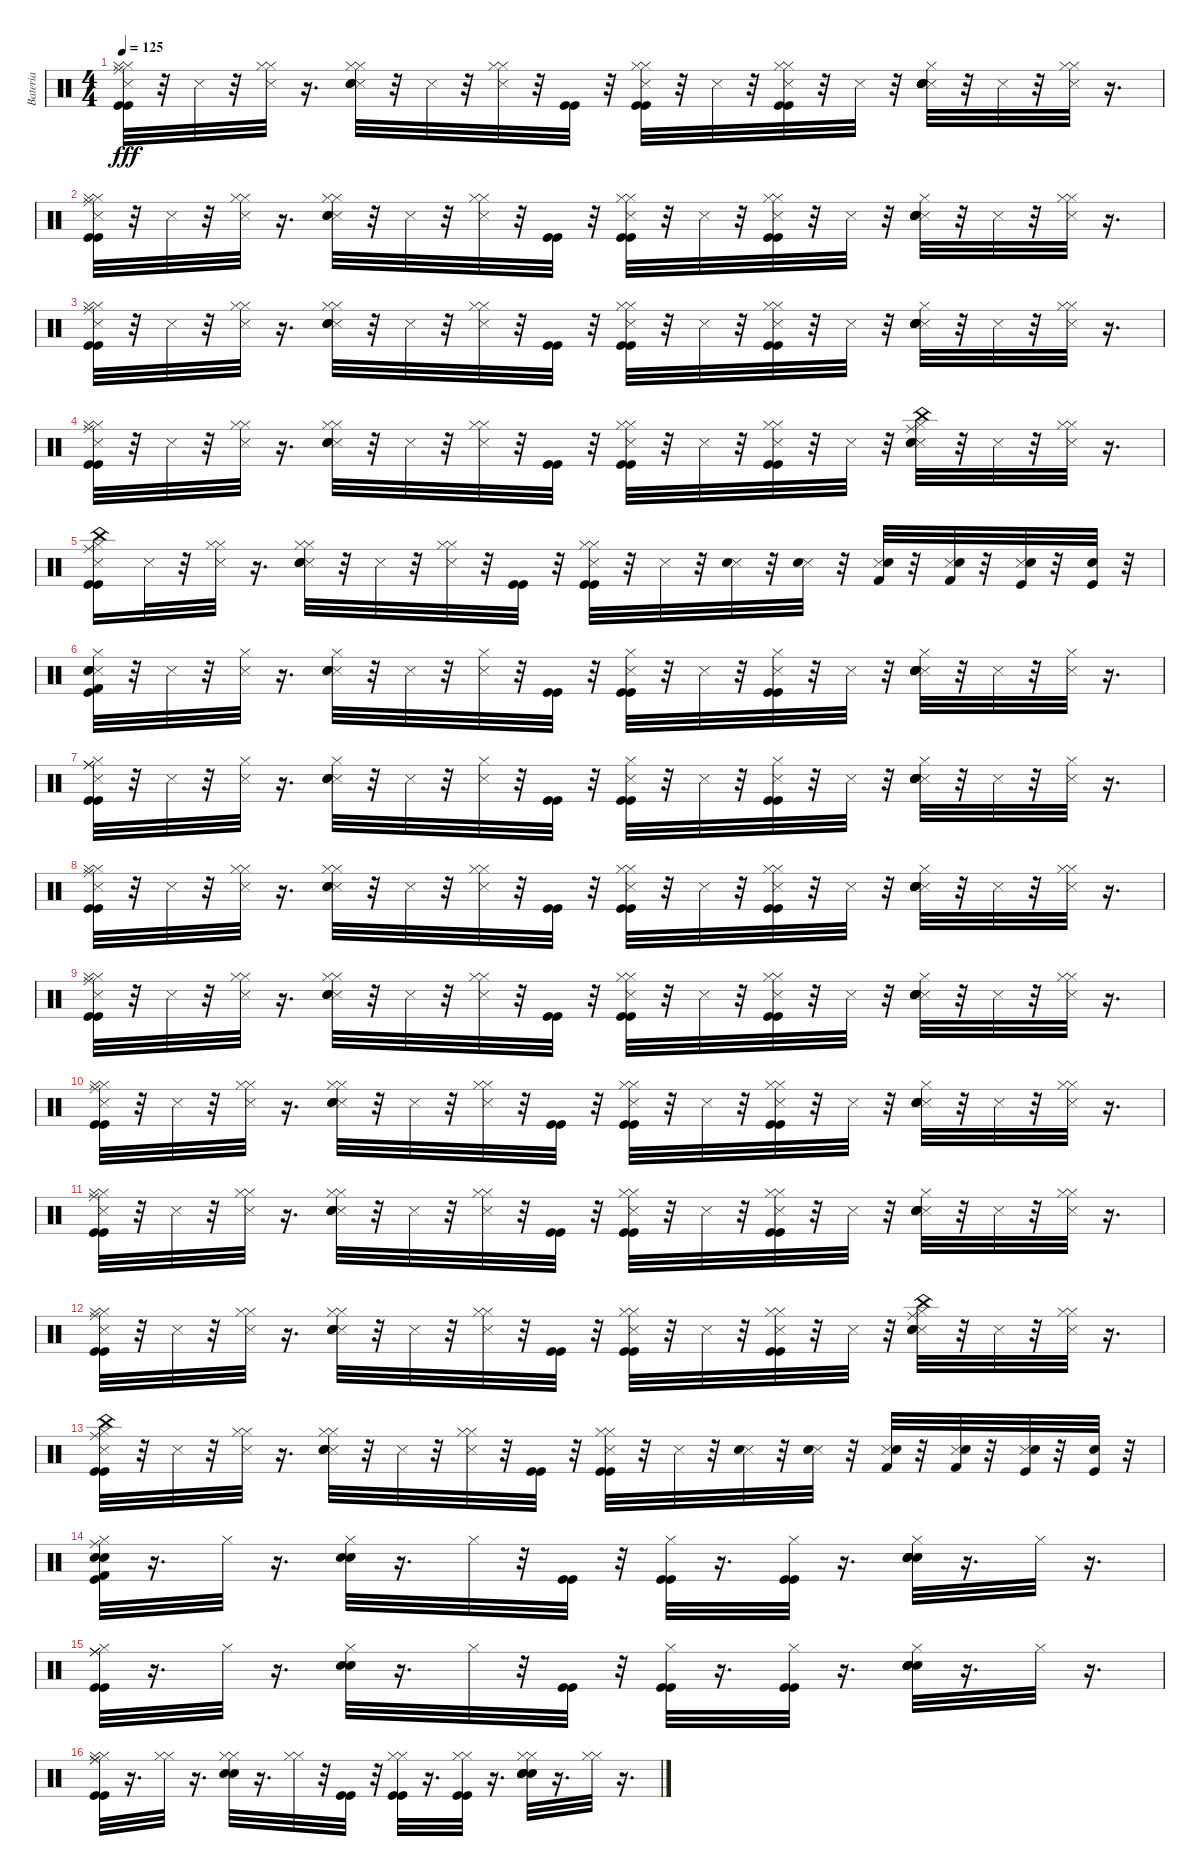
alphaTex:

\track ("Bateria" "Bateria") {instrument percussion}
\staff {score}
\articulation defaults
\ts (4 4)
\tempo 125
\clef neutral
\ks c
("Snare (side stick) 3" "Kick (hit)" "Hi-Hat (closed)" "Ride (middle)" "Kick (hit)" "Hi-Hat (closed)").32{dy fff} r.32 "Snare (side stick) 3".32 r.32 ("Snare (side stick) 3" "Hi-Hat (closed)" "Hi-Hat (closed)").32 r.16{d} ("Snare (side stick) 3" "Snare (hit) 2" "Electric Snare (hit)" "Hi-Hat (closed)" "Hi-Hat (closed)").32 r.32 "Snare (side stick) 3".32 r.32 ("Snare (side stick) 3" "Hi-Hat (closed)" "Hi-Hat (closed)").32 r.32 ("Kick (hit)" "Kick (hit)").32 r.32 ("Snare (side stick) 3" "Kick (hit)" "Hi-Hat (closed)" "Kick (hit)" "Hi-Hat (closed)").32 r.32 "Snare (side stick) 3".32 r.32 ("Snare (side stick) 3" "Kick (hit)" "Hi-Hat (closed)" "Kick (hit)" "Hi-Hat (closed)").32 r.32 "Snare (side stick) 3".32 r.32 ("Snare (side stick) 3" "Snare (hit) 2" "Electric Snare (hit)" "Hi-Hat (closed)" "Snare (hit) 2" "Electric Snare (hit)").32 r.32 "Snare (side stick) 3".32 r.32 ("Snare (side stick) 3" "Hi-Hat (closed)" "Hi-Hat (closed)").32 r.16{d} |
("Snare (side stick) 3" "Kick (hit)" "Hi-Hat (closed)" "Ride (middle)" "Kick (hit)" "Hi-Hat (closed)").32 r.32 "Snare (side stick) 3".32 r.32 ("Snare (side stick) 3" "Hi-Hat (closed)" "Hi-Hat (closed)").32 r.16{d} ("Snare (side stick) 3" "Snare (hit) 2" "Electric Snare (hit)" "Hi-Hat (closed)" "Hi-Hat (closed)").32 r.32 "Snare (side stick) 3".32 r.32 ("Snare (side stick) 3" "Hi-Hat (closed)" "Hi-Hat (closed)").32 r.32 ("Kick (hit)" "Kick (hit)").32 r.32 ("Snare (side stick) 3" "Kick (hit)" "Hi-Hat (closed)" "Kick (hit)" "Hi-Hat (closed)").32 r.32 "Snare (side stick) 3".32 r.32 ("Snare (side stick) 3" "Kick (hit)" "Hi-Hat (closed)" "Kick (hit)" "Hi-Hat (closed)").32 r.32 "Snare (side stick) 3".32 r.32 ("Snare (side stick) 3" "Snare (hit) 2" "Electric Snare (hit)" "Hi-Hat (closed)" "Snare (hit) 2" "Electric Snare (hit)").32 r.32 "Snare (side stick) 3".32 r.32 ("Snare (side stick) 3" "Hi-Hat (closed)" "Hi-Hat (closed)").32 r.16{d} |
("Snare (side stick) 3" "Kick (hit)" "Hi-Hat (closed)" "Ride (middle)" "Kick (hit)" "Hi-Hat (closed)").32 r.32 "Snare (side stick) 3".32 r.32 ("Snare (side stick) 3" "Hi-Hat (closed)" "Hi-Hat (closed)").32 r.16{d} ("Snare (side stick) 3" "Snare (hit) 2" "Electric Snare (hit)" "Hi-Hat (closed)" "Hi-Hat (closed)").32 r.32 "Snare (side stick) 3".32 r.32 ("Snare (side stick) 3" "Hi-Hat (closed)" "Hi-Hat (closed)").32 r.32 ("Kick (hit)" "Kick (hit)").32 r.32 ("Snare (side stick) 3" "Kick (hit)" "Hi-Hat (closed)" "Kick (hit)" "Hi-Hat (closed)").32 r.32 "Snare (side stick) 3".32 r.32 ("Snare (side stick) 3" "Kick (hit)" "Hi-Hat (closed)" "Kick (hit)" "Hi-Hat (closed)").32 r.32 "Snare (side stick) 3".32 r.32 ("Snare (side stick) 3" "Snare (hit) 2" "Electric Snare (hit)" "Hi-Hat (closed)" "Snare (hit) 2" "Electric Snare (hit)").32 r.32 "Snare (side stick) 3".32 r.32 ("Snare (side stick) 3" "Hi-Hat (closed)" "Hi-Hat (closed)").32 r.16{d} |
("Snare (side stick) 3" "Kick (hit)" "Hi-Hat (closed)" "Ride (middle)" "Kick (hit)" "Hi-Hat (closed)").32 r.32 "Snare (side stick) 3".32 r.32 ("Snare (side stick) 3" "Hi-Hat (closed)" "Hi-Hat (closed)").32 r.16{d} ("Snare (side stick) 3" "Electric Snare (hit)" "Snare (hit) 2" "Hi-Hat (closed)" "Hi-Hat (closed)").32 r.32 "Snare (side stick) 3".32 r.32 ("Snare (side stick) 3" "Hi-Hat (closed)" "Hi-Hat (closed)").32 r.32 ("Kick (hit)" "Kick (hit)").32 r.32 ("Snare (side stick) 3" "Kick (hit)" "Hi-Hat (closed)" "Kick (hit)" "Hi-Hat (closed)").32 r.32 "Snare (side stick) 3".32 r.32 ("Snare (side stick) 3" "Kick (hit)" "Hi-Hat (closed)" "Kick (hit)" "Hi-Hat (closed)").32 r.32 "Snare (side stick) 3".32 r.32 ("Snare (side stick) 3" "Ride (middle)" "China (hit)" "Snare (hit) 2" "Electric Snare (hit)" "Hi-Hat (closed)").32 r.32 "Snare (side stick) 3".32 r.32 ("Snare (side stick) 3" "Hi-Hat (closed)" "Hi-Hat (closed)").32 r.16{d} |
("Snare (side stick) 3" "China (hit)" "Kick (hit)" "Hi-Hat (closed)" "Ride (middle)" "Kick (hit)").16 "Snare (side stick) 3".32 r.32 ("Snare (side stick) 3" "Hi-Hat (closed)" "Hi-Hat (closed)").32 r.16{d} ("Snare (side stick) 3" "Snare (hit) 2" "Electric Snare (hit)" "Hi-Hat (closed)" "Hi-Hat (closed)").32 r.32 "Snare (side stick) 3".32 r.32 ("Snare (side stick) 3" "Hi-Hat (closed)" "Hi-Hat (closed)").32 r.32 ("Kick (hit)" "Kick (hit)").32 r.32 ("Snare (side stick) 3" "Kick (hit)" "Hi-Hat (closed)" "Kick (hit)" "Hi-Hat (closed)").32 r.32 "Snare (side stick) 3".32 r.32 ("Snare (side stick) 3" "Electric Snare (hit)").32 r.32 ("Snare (side stick) 3" "Electric Snare (hit)").32 r.32 ("Snare (side stick) 3" "Kick (hit) 2" "Electric Snare (hit)").32 r.32 ("Snare (side stick) 3" "Kick (hit) 2" "Electric Snare (hit)").32 r.32 ("Snare (side stick) 3" "Snare (hit) 2" "Kick (hit)").32 r.32 ("Snare (hit) 2" "Kick (hit)").32 r.32 |
("Snare (side stick) 3" "Kick (hit) 2" "Snare (hit) 2" "Electric Snare (hit)" "Hi-Hat (closed)" "Kick (hit)").32 r.32 "Snare (side stick) 3".32 r.32 ("Snare (side stick) 3" "Hi-Hat (closed)").32 r.16{d} ("Snare (side stick) 3" "Snare (hit) 2" "Electric Snare (hit)" "Hi-Hat (closed)").32 r.32 "Snare (side stick) 3".32 r.32 ("Snare (side stick) 3" "Hi-Hat (closed)").32 r.32 ("Kick (hit)" "Kick (hit)").32 r.32 ("Snare (side stick) 3" "Hi-Hat (closed)" "Kick (hit)" "Kick (hit)").32 r.32 "Snare (side stick) 3".32 r.32 ("Snare (side stick) 3" "Hi-Hat (closed)" "Kick (hit)" "Kick (hit)").32 r.32 "Snare (side stick) 3".32 r.32 ("Snare (side stick) 3" "Hi-Hat (closed)" "Snare (hit) 2" "Electric Snare (hit)" "Snare (hit) 2" "Electric Snare (hit)").32 r.32 "Snare (side stick) 3".32 r.32 ("Snare (side stick) 3" "Hi-Hat (closed)").32 r.16{d} |
("Snare (side stick) 3" "Hi-Hat (closed)" "Kick (hit)" "Ride (middle)" "Kick (hit)" "Ride (middle)").32 r.32 "Snare (side stick) 3".32 r.32 ("Snare (side stick) 3" "Hi-Hat (closed)").32 r.16{d} ("Snare (side stick) 3" "Snare (hit) 2" "Electric Snare (hit)" "Hi-Hat (closed)").32 r.32 "Snare (side stick) 3".32 r.32 ("Snare (side stick) 3" "Hi-Hat (closed)").32 r.32 ("Kick (hit)" "Kick (hit)").32 r.32 ("Snare (side stick) 3" "Hi-Hat (closed)" "Kick (hit)" "Kick (hit)").32 r.32 "Snare (side stick) 3".32 r.32 ("Snare (side stick) 3" "Hi-Hat (closed)" "Kick (hit)" "Kick (hit)").32 r.32 "Snare (side stick) 3".32 r.32 ("Snare (side stick) 3" "Hi-Hat (closed)" "Snare (hit) 2" "Electric Snare (hit)" "Snare (hit) 2" "Electric Snare (hit)").32 r.32 "Snare (side stick) 3".32 r.32 ("Snare (side stick) 3" "Hi-Hat (closed)").32 r.16{d} |
("Snare (side stick) 3" "Kick (hit)" "Hi-Hat (closed)" "Ride (middle)" "Kick (hit)" "Hi-Hat (closed)").32 r.32 "Snare (side stick) 3".32 r.32 ("Snare (side stick) 3" "Hi-Hat (closed)" "Hi-Hat (closed)").32 r.16{d} ("Snare (side stick) 3" "Snare (hit) 2" "Electric Snare (hit)" "Hi-Hat (closed)" "Hi-Hat (closed)").32 r.32 "Snare (side stick) 3".32 r.32 ("Snare (side stick) 3" "Hi-Hat (closed)" "Hi-Hat (closed)").32 r.32 ("Kick (hit)" "Kick (hit)").32 r.32 ("Snare (side stick) 3" "Kick (hit)" "Hi-Hat (closed)" "Kick (hit)" "Hi-Hat (closed)").32 r.32 "Snare (side stick) 3".32 r.32 ("Snare (side stick) 3" "Kick (hit)" "Hi-Hat (closed)" "Kick (hit)" "Hi-Hat (closed)").32 r.32 "Snare (side stick) 3".32 r.32 ("Snare (side stick) 3" "Snare (hit) 2" "Electric Snare (hit)" "Hi-Hat (closed)" "Snare (hit) 2" "Electric Snare (hit)").32 r.32 "Snare (side stick) 3".32 r.32 ("Snare (side stick) 3" "Hi-Hat (closed)" "Hi-Hat (closed)").32 r.16{d} |
("Snare (side stick) 3" "Kick (hit)" "Hi-Hat (closed)" "Ride (middle)" "Kick (hit)" "Hi-Hat (closed)").32 r.32 "Snare (side stick) 3".32 r.32 ("Snare (side stick) 3" "Hi-Hat (closed)" "Hi-Hat (closed)").32 r.16{d} ("Snare (side stick) 3" "Snare (hit) 2" "Electric Snare (hit)" "Hi-Hat (closed)" "Hi-Hat (closed)").32 r.32 "Snare (side stick) 3".32 r.32 ("Snare (side stick) 3" "Hi-Hat (closed)" "Hi-Hat (closed)").32 r.32 ("Kick (hit)" "Kick (hit)").32 r.32 ("Snare (side stick) 3" "Kick (hit)" "Hi-Hat (closed)" "Kick (hit)" "Hi-Hat (closed)").32 r.32 "Snare (side stick) 3".32 r.32 ("Snare (side stick) 3" "Kick (hit)" "Hi-Hat (closed)" "Kick (hit)" "Hi-Hat (closed)").32 r.32 "Snare (side stick) 3".32 r.32 ("Snare (side stick) 3" "Snare (hit) 2" "Electric Snare (hit)" "Hi-Hat (closed)" "Snare (hit) 2" "Electric Snare (hit)").32 r.32 "Snare (side stick) 3".32 r.32 ("Snare (side stick) 3" "Hi-Hat (closed)" "Hi-Hat (closed)").32 r.16{d} |
("Snare (side stick) 3" "Kick (hit)" "Hi-Hat (closed)" "Ride (middle)" "Kick (hit)" "Hi-Hat (closed)").32 r.32 "Snare (side stick) 3".32 r.32 ("Snare (side stick) 3" "Hi-Hat (closed)" "Hi-Hat (closed)").32 r.16{d} ("Snare (side stick) 3" "Snare (hit) 2" "Electric Snare (hit)" "Hi-Hat (closed)" "Hi-Hat (closed)").32 r.32 "Snare (side stick) 3".32 r.32 ("Snare (side stick) 3" "Hi-Hat (closed)" "Hi-Hat (closed)").32 r.32 ("Kick (hit)" "Kick (hit)").32 r.32 ("Snare (side stick) 3" "Kick (hit)" "Hi-Hat (closed)" "Kick (hit)" "Hi-Hat (closed)").32 r.32 "Snare (side stick) 3".32 r.32 ("Snare (side stick) 3" "Kick (hit)" "Hi-Hat (closed)" "Kick (hit)" "Hi-Hat (closed)").32 r.32 "Snare (side stick) 3".32 r.32 ("Snare (side stick) 3" "Snare (hit) 2" "Electric Snare (hit)" "Hi-Hat (closed)" "Snare (hit) 2" "Electric Snare (hit)").32 r.32 "Snare (side stick) 3".32 r.32 ("Snare (side stick) 3" "Hi-Hat (closed)" "Hi-Hat (closed)").32 r.16{d} |
("Snare (side stick) 3" "Kick (hit)" "Hi-Hat (closed)" "Ride (middle)" "Kick (hit)" "Hi-Hat (closed)").32 r.32 "Snare (side stick) 3".32 r.32 ("Snare (side stick) 3" "Hi-Hat (closed)" "Hi-Hat (closed)").32 r.16{d} ("Snare (side stick) 3" "Snare (hit) 2" "Electric Snare (hit)" "Hi-Hat (closed)" "Hi-Hat (closed)").32 r.32 "Snare (side stick) 3".32 r.32 ("Snare (side stick) 3" "Hi-Hat (closed)" "Hi-Hat (closed)").32 r.32 ("Kick (hit)" "Kick (hit)").32 r.32 ("Snare (side stick) 3" "Kick (hit)" "Hi-Hat (closed)" "Kick (hit)" "Hi-Hat (closed)").32 r.32 "Snare (side stick) 3".32 r.32 ("Snare (side stick) 3" "Kick (hit)" "Hi-Hat (closed)" "Kick (hit)" "Hi-Hat (closed)").32 r.32 "Snare (side stick) 3".32 r.32 ("Snare (side stick) 3" "Snare (hit) 2" "Electric Snare (hit)" "Hi-Hat (closed)" "Snare (hit) 2" "Electric Snare (hit)").32 r.32 "Snare (side stick) 3".32 r.32 ("Snare (side stick) 3" "Hi-Hat (closed)" "Hi-Hat (closed)").32 r.16{d} |
("Snare (side stick) 3" "Kick (hit)" "Hi-Hat (closed)" "Ride (middle)" "Kick (hit)" "Hi-Hat (closed)").32 r.32 "Snare (side stick) 3".32 r.32 ("Snare (side stick) 3" "Hi-Hat (closed)" "Hi-Hat (closed)").32 r.16{d} ("Snare (side stick) 3" "Electric Snare (hit)" "Snare (hit) 2" "Hi-Hat (closed)" "Hi-Hat (closed)").32 r.32 "Snare (side stick) 3".32 r.32 ("Snare (side stick) 3" "Hi-Hat (closed)" "Hi-Hat (closed)").32 r.32 ("Kick (hit)" "Kick (hit)").32 r.32 ("Snare (side stick) 3" "Kick (hit)" "Hi-Hat (closed)" "Kick (hit)" "Hi-Hat (closed)").32 r.32 "Snare (side stick) 3".32 r.32 ("Snare (side stick) 3" "Kick (hit)" "Hi-Hat (closed)" "Kick (hit)" "Hi-Hat (closed)").32 r.32 "Snare (side stick) 3".32 r.32 ("Snare (side stick) 3" "Ride (middle)" "China (hit)" "Snare (hit) 2" "Electric Snare (hit)" "Hi-Hat (closed)").32 r.32 "Snare (side stick) 3".32 r.32 ("Snare (side stick) 3" "Hi-Hat (closed)" "Hi-Hat (closed)").32 r.16{d} |
("Snare (side stick) 3" "China (hit)" "Kick (hit)" "Hi-Hat (closed)" "Ride (middle)" "Kick (hit)").32 r.32 "Snare (side stick) 3".32 r.32 ("Snare (side stick) 3" "Hi-Hat (closed)" "Hi-Hat (closed)").32 r.16{d} ("Snare (side stick) 3" "Snare (hit) 2" "Electric Snare (hit)" "Hi-Hat (closed)" "Hi-Hat (closed)").32 r.32 "Snare (side stick) 3".32 r.32 ("Snare (side stick) 3" "Hi-Hat (closed)" "Hi-Hat (closed)").32 r.32 ("Kick (hit)" "Kick (hit)").32 r.32 ("Snare (side stick) 3" "Kick (hit)" "Hi-Hat (closed)" "Kick (hit)" "Hi-Hat (closed)").32 r.32 "Snare (side stick) 3".32 r.32 ("Snare (side stick) 3" "Electric Snare (hit)").32 r.32 ("Snare (side stick) 3" "Electric Snare (hit)").32 r.32 ("Snare (side stick) 3" "Kick (hit) 2" "Electric Snare (hit)").32 r.32 ("Snare (side stick) 3" "Kick (hit) 2" "Electric Snare (hit)").32 r.32 ("Snare (side stick) 3" "Snare (hit) 2" "Kick (hit)").32 r.32 ("Snare (hit) 2" "Kick (hit)").32 r.32 |
("Kick (hit) 2" "Snare (hit) 2" "Electric Snare (hit)" "Hi-Hat (closed)" "Kick (hit)" "Ride (middle)").32 r.16{d} "Hi-Hat (closed)".32 r.16{d} ("Snare (hit) 2" "Electric Snare (hit)" "Hi-Hat (closed)").32 r.16{d} "Hi-Hat (closed)".32 r.32 ("Kick (hit)" "Kick (hit)").32 r.32 ("Hi-Hat (closed)" "Kick (hit)" "Kick (hit)").32 r.16{d} ("Hi-Hat (closed)" "Kick (hit)" "Kick (hit)").32 r.16{d} ("Hi-Hat (closed)" "Snare (hit) 2" "Electric Snare (hit)" "Snare (hit) 2" "Electric Snare (hit)").32 r.16{d} "Hi-Hat (closed)".32 r.16{d} |
("Hi-Hat (closed)" "Kick (hit)" "Ride (middle)" "Kick (hit)" "Ride (middle)").32 r.16{d} "Hi-Hat (closed)".32 r.16{d} ("Snare (hit) 2" "Electric Snare (hit)" "Hi-Hat (closed)").32 r.16{d} "Hi-Hat (closed)".32 r.32 ("Kick (hit)" "Kick (hit)").32 r.32 ("Hi-Hat (closed)" "Kick (hit)" "Kick (hit)").32 r.16{d} ("Hi-Hat (closed)" "Kick (hit)" "Kick (hit)").32 r.16{d} ("Hi-Hat (closed)" "Snare (hit) 2" "Electric Snare (hit)" "Snare (hit) 2" "Electric Snare (hit)").32 r.16{d} "Hi-Hat (closed)".32 r.16{d} |
("Kick (hit)" "Hi-Hat (closed)" "Ride (middle)" "Kick (hit)" "Hi-Hat (closed)" "Ride (middle)").32 r.16{d} ("Hi-Hat (closed)" "Hi-Hat (closed)").32 r.16{d} ("Snare (hit) 2" "Electric Snare (hit)" "Hi-Hat (closed)" "Hi-Hat (closed)").32 r.16{d} ("Hi-Hat (closed)" "Hi-Hat (closed)").32 r.32 ("Kick (hit)" "Kick (hit)").32 r.32 ("Kick (hit)" "Hi-Hat (closed)" "Kick (hit)" "Hi-Hat (closed)").32 r.16{d} ("Kick (hit)" "Hi-Hat (closed)" "Kick (hit)" "Hi-Hat (closed)").32 r.16{d} ("Snare (hit) 2" "Electric Snare (hit)" "Hi-Hat (closed)" "Snare (hit) 2" "Electric Snare (hit)" "Hi-Hat (closed)").32 r.16{d} ("Hi-Hat (closed)" "Hi-Hat (closed)").32 r.16{d}
